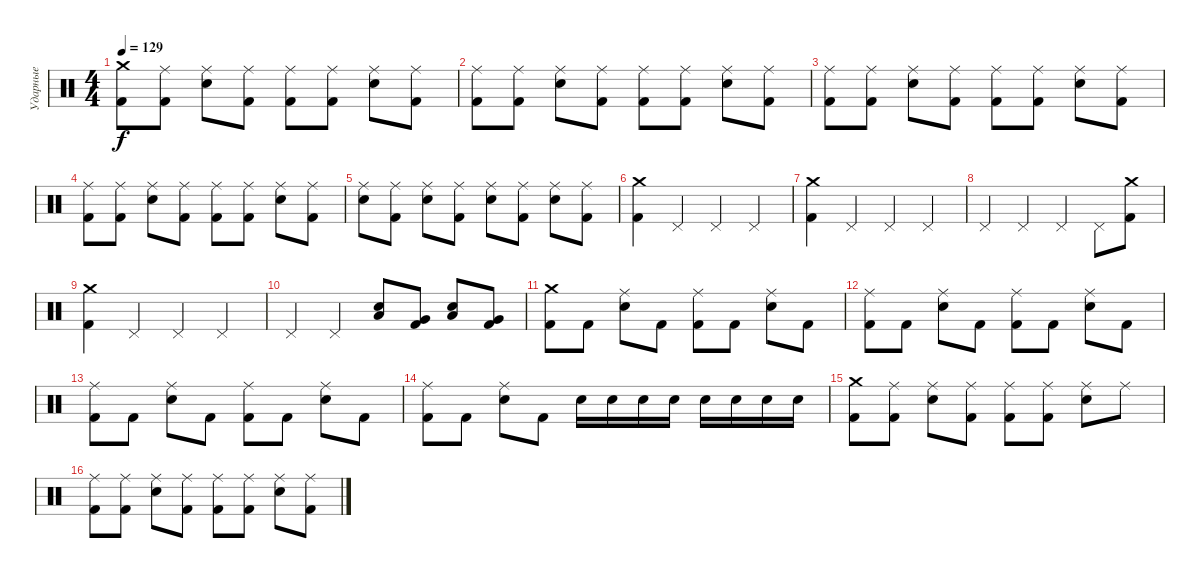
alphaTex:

\track ("Ударные" "Ударные") {instrument percussion}
\staff {score}
\articulation defaults
\ts (4 4)
\tempo 129
\clef neutral
\ks c
("Crash medium (hit)" "Kick (hit) 2").8{dy f} ("Ride (middle)" "Kick (hit) 2").8 ("Ride (middle)" "Electric Snare (hit)").8 ("Ride (middle)" "Kick (hit) 2").8 ("Ride (middle)" "Kick (hit) 2").8 ("Ride (middle)" "Kick (hit) 2").8 ("Ride (middle)" "Electric Snare (hit)").8 ("Ride (middle)" "Kick (hit) 2").8 |
("Ride (middle)" "Kick (hit) 2").8 ("Ride (middle)" "Kick (hit) 2").8 ("Ride (middle)" "Electric Snare (hit)").8 ("Ride (middle)" "Kick (hit) 2").8 ("Ride (middle)" "Kick (hit) 2").8 ("Ride (middle)" "Kick (hit) 2").8 ("Ride (middle)" "Electric Snare (hit)").8 ("Ride (middle)" "Kick (hit) 2").8 |
("Ride (middle)" "Kick (hit) 2").8 ("Ride (middle)" "Kick (hit) 2").8 ("Ride (middle)" "Electric Snare (hit)").8 ("Ride (middle)" "Kick (hit) 2").8 ("Ride (middle)" "Kick (hit) 2").8 ("Ride (middle)" "Kick (hit) 2").8 ("Ride (middle)" "Electric Snare (hit)").8 ("Ride (middle)" "Kick (hit) 2").8 |
("Ride (middle)" "Kick (hit) 2").8 ("Ride (middle)" "Kick (hit) 2").8 ("Ride (middle)" "Electric Snare (hit)").8 ("Ride (middle)" "Kick (hit) 2").8 ("Ride (middle)" "Kick (hit) 2").8 ("Ride (middle)" "Kick (hit) 2").8 ("Ride (middle)" "Electric Snare (hit)").8 ("Ride (middle)" "Kick (hit) 2").8 |
("Ride (middle)" "Electric Snare (hit)").8 ("Ride (middle)" "Kick (hit) 2").8 ("Ride (middle)" "Electric Snare (hit)").8 ("Ride (middle)" "Kick (hit) 2").8 ("Ride (middle)" "Electric Snare (hit)").8 ("Ride (middle)" "Kick (hit) 2").8 ("Ride (middle)" "Electric Snare (hit)").8 ("Ride (middle)" "Kick (hit) 2").8 |
("Crash medium (hit)" "Kick (hit) 2").4 "Pedal Hi-Hat (hit)".4 "Pedal Hi-Hat (hit)".4 "Pedal Hi-Hat (hit)".4 |
("Crash medium (hit)" "Kick (hit) 2").4 "Pedal Hi-Hat (hit)".4 "Pedal Hi-Hat (hit)".4 "Pedal Hi-Hat (hit)".4 |
"Pedal Hi-Hat (hit)".4 "Pedal Hi-Hat (hit)".4 "Pedal Hi-Hat (hit)".4 "Pedal Hi-Hat (hit)".8 ("Crash medium (hit)" "Kick (hit) 2").8 |
("Crash medium (hit)" "Kick (hit) 2").4 "Pedal Hi-Hat (hit)".4 "Pedal Hi-Hat (hit)".4 "Pedal Hi-Hat (hit)".4 |
"Pedal Hi-Hat (hit)".4 "Pedal Hi-Hat (hit)".4 ("Low Tom (hit)" "Electric Snare (hit)").8 ("Very Low Tom (hit)" "Kick (hit) 2").8 ("Low Tom (hit)" "Electric Snare (hit)").8 ("Very Low Tom (hit)" "Kick (hit) 2").8 |
("Crash medium (hit)" "Kick (hit) 2").8 "Kick (hit) 2".8 ("Ride (middle)" "Electric Snare (hit)").8 "Kick (hit) 2".8 ("Ride (middle)" "Kick (hit) 2").8 "Kick (hit) 2".8 ("Ride (middle)" "Electric Snare (hit)").8 "Kick (hit) 2".8 |
("Ride (middle)" "Kick (hit) 2").8 "Kick (hit) 2".8 ("Ride (middle)" "Electric Snare (hit)").8 "Kick (hit) 2".8 ("Ride (middle)" "Kick (hit) 2").8 "Kick (hit) 2".8 ("Ride (middle)" "Electric Snare (hit)").8 "Kick (hit) 2".8 |
("Ride (middle)" "Kick (hit) 2").8 "Kick (hit) 2".8 ("Ride (middle)" "Electric Snare (hit)").8 "Kick (hit) 2".8 ("Ride (middle)" "Kick (hit) 2").8 "Kick (hit) 2".8 ("Ride (middle)" "Electric Snare (hit)").8 "Kick (hit) 2".8 |
("Ride (middle)" "Kick (hit) 2").8 "Kick (hit) 2".8 ("Ride (middle)" "Electric Snare (hit)").8 "Kick (hit) 2".8 "Electric Snare (hit)".16 "Electric Snare (hit)".16 "Electric Snare (hit)".16 "Electric Snare (hit)".16 "Electric Snare (hit)".16 "Electric Snare (hit)".16 "Electric Snare (hit)".16 "Electric Snare (hit)".16 |
("Crash medium (hit)" "Kick (hit) 2").8 ("Ride (middle)" "Kick (hit) 2").8 ("Ride (middle)" "Electric Snare (hit)").8 ("Ride (middle)" "Kick (hit) 2").8 ("Ride (middle)" "Kick (hit) 2").8 ("Ride (middle)" "Kick (hit) 2").8 ("Ride (middle)" "Electric Snare (hit)").8 "Ride (middle)".8 |
("Ride (middle)" "Kick (hit) 2").8 ("Ride (middle)" "Kick (hit) 2").8 ("Ride (middle)" "Electric Snare (hit)").8 ("Ride (middle)" "Kick (hit) 2").8 ("Ride (middle)" "Kick (hit) 2").8 ("Ride (middle)" "Kick (hit) 2").8 ("Ride (middle)" "Electric Snare (hit)").8 ("Ride (middle)" "Kick (hit) 2").8
